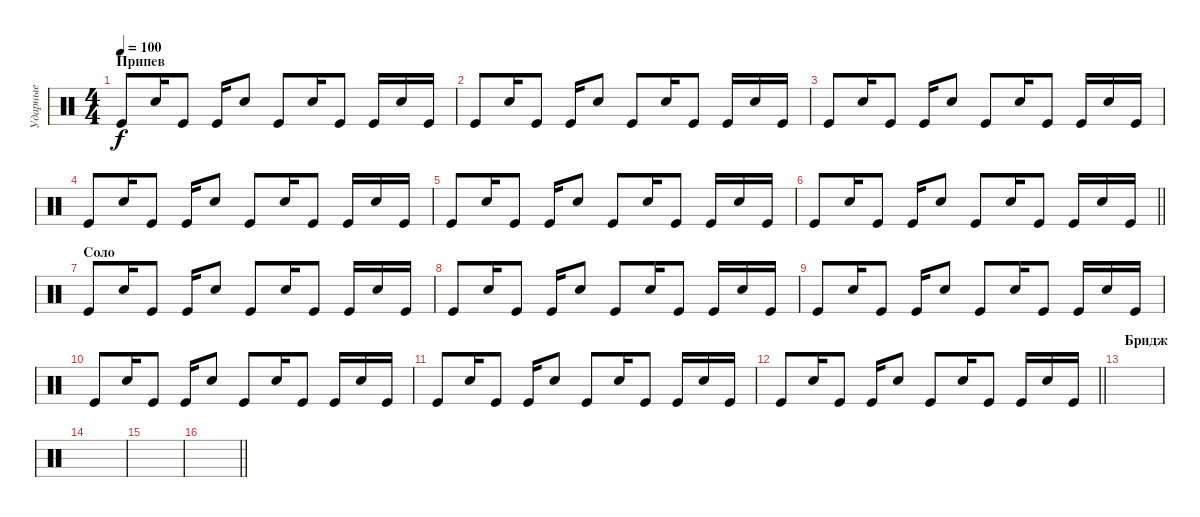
\track ("Ударные" "Ударные") {instrument percussion}
\staff {score}
\articulation defaults
\ts (4 4)
\section ("" "Припев")
\tempo 100
\clef neutral
\ks c "Kick (hit)".8{dy f} "Snare (hit) 2".16 "Kick (hit)".8 "Kick (hit)".16 "Snare (hit) 2".8 "Kick (hit)".8 "Snare (hit) 2".16 "Kick (hit)".8 "Kick (hit)".16 "Snare (hit) 2".16 "Kick (hit)".16
|
"Kick (hit)".8 "Snare (hit) 2".16 "Kick (hit)".8 "Kick (hit)".16 "Snare (hit) 2".8 "Kick (hit)".8 "Snare (hit) 2".16 "Kick (hit)".8 "Kick (hit)".16 "Snare (hit) 2".16 "Kick (hit)".16 |
"Kick (hit)".8 "Snare (hit) 2".16 "Kick (hit)".8 "Kick (hit)".16 "Snare (hit) 2".8 "Kick (hit)".8 "Snare (hit) 2".16 "Kick (hit)".8 "Kick (hit)".16 "Snare (hit) 2".16 "Kick (hit)".16 |
"Kick (hit)".8 "Snare (hit) 2".16 "Kick (hit)".8 "Kick (hit)".16 "Snare (hit) 2".8 "Kick (hit)".8 "Snare (hit) 2".16 "Kick (hit)".8 "Kick (hit)".16 "Snare (hit) 2".16 "Kick (hit)".16 |
"Kick (hit)".8 "Snare (hit) 2".16 "Kick (hit)".8 "Kick (hit)".16 "Snare (hit) 2".8 "Kick (hit)".8 "Snare (hit) 2".16 "Kick (hit)".8 "Kick (hit)".16 "Snare (hit) 2".16 "Kick (hit)".16 |
\barLineRight lightlight "Kick (hit)".8 "Snare (hit) 2".16 "Kick (hit)".8 "Kick (hit)".16 "Snare (hit) 2".8 "Kick (hit)".8 "Snare (hit) 2".16 "Kick (hit)".8 "Kick (hit)".16 "Snare (hit) 2".16 "Kick (hit)".16
|
\section ("" "Соло")
"Kick (hit)".8 "Snare (hit) 2".16 "Kick (hit)".8 "Kick (hit)".16 "Snare (hit) 2".8 "Kick (hit)".8 "Snare (hit) 2".16 "Kick (hit)".8 "Kick (hit)".16 "Snare (hit) 2".16 "Kick (hit)".16 |
"Kick (hit)".8 "Snare (hit) 2".16 "Kick (hit)".8 "Kick (hit)".16 "Snare (hit) 2".8 "Kick (hit)".8 "Snare (hit) 2".16 "Kick (hit)".8 "Kick (hit)".16 "Snare (hit) 2".16 "Kick (hit)".16 |
"Kick (hit)".8 "Snare (hit) 2".16 "Kick (hit)".8 "Kick (hit)".16 "Snare (hit) 2".8 "Kick (hit)".8 "Snare (hit) 2".16 "Kick (hit)".8 "Kick (hit)".16 "Snare (hit) 2".16 "Kick (hit)".16 |
"Kick (hit)".8 "Snare (hit) 2".16 "Kick (hit)".8 "Kick (hit)".16 "Snare (hit) 2".8 "Kick (hit)".8 "Snare (hit) 2".16 "Kick (hit)".8 "Kick (hit)".16 "Snare (hit) 2".16 "Kick (hit)".16 |
"Kick (hit)".8 "Snare (hit) 2".16 "Kick (hit)".8 "Kick (hit)".16 "Snare (hit) 2".8 "Kick (hit)".8 "Snare (hit) 2".16 "Kick (hit)".8 "Kick (hit)".16 "Snare (hit) 2".16 "Kick (hit)".16 |
\barLineRight lightlight "Kick (hit)".8 "Snare (hit) 2".16 "Kick (hit)".8 "Kick (hit)".16 "Snare (hit) 2".8 "Kick (hit)".8 "Snare (hit) 2".16 "Kick (hit)".8 "Kick (hit)".16 "Snare (hit) 2".16 "Kick (hit)".16
|
\section ("" "Бридж")
|
|
|
\barLineRight lightlight
